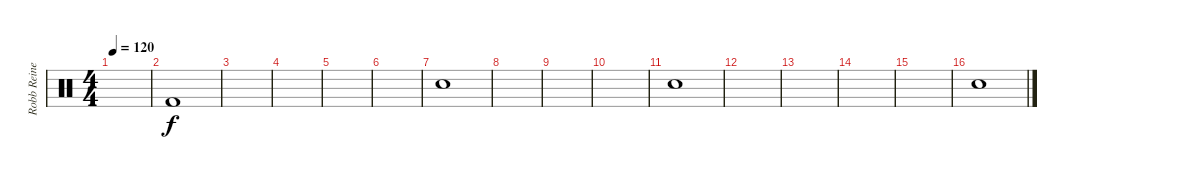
\track ("Robb Reiner" "Robb Reine") {instrument percussion}
\staff {score}
\articulation defaults
\ts (4 4)
\tempo 120
\clef neutral
\ks c
|
"Kick (hit) 2".1 |
|
|
|
|
"Snare (hit)".1 |
|
|
|
"Snare (hit)".1 |
|
|
|
|
"Snare (hit)".1
